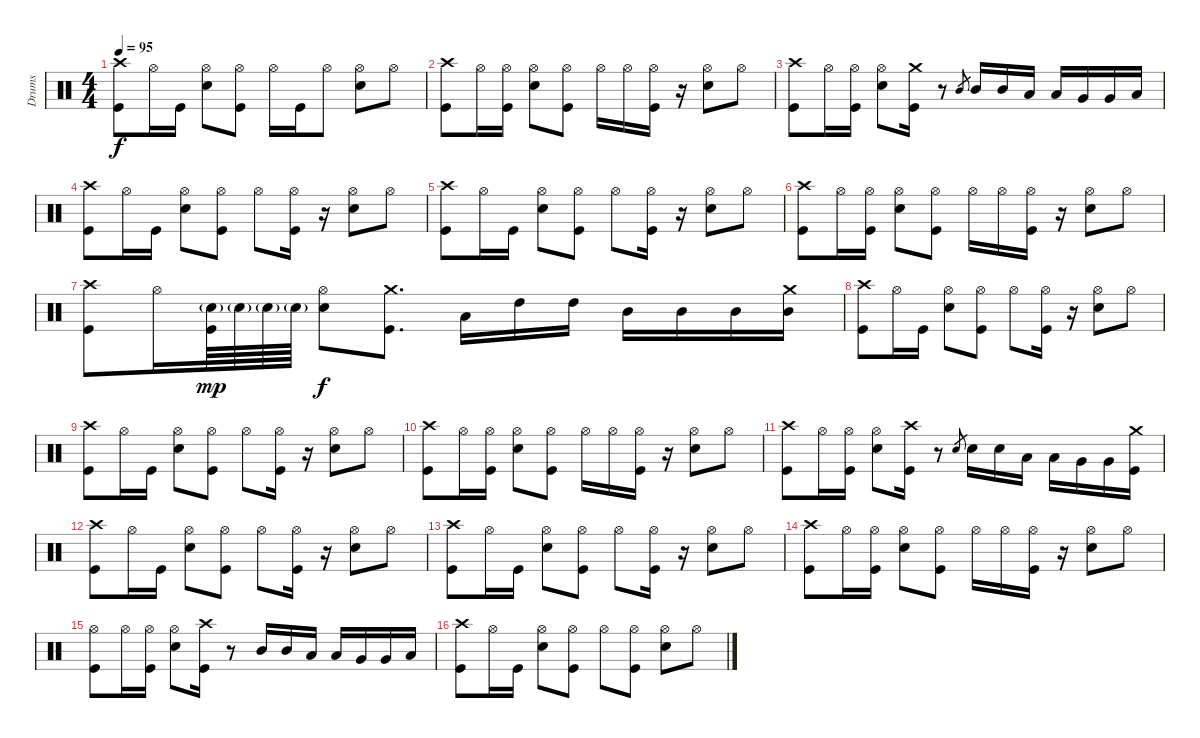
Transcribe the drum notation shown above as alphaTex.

\track ("Drums" "Drums") {instrument percussion}
\staff {score}
\articulation defaults
\ts (4 4)
\tempo 95
\clef neutral
\ks c
("Crash high (hit)" "Kick (hit)").8{dy f} "Hi-Hat (open)".16 "Kick (hit)".16 ("Hi-Hat (open)" "Electric Snare (hit)").8 ("Hi-Hat (open)" "Kick (hit)").8 "Hi-Hat (open)".16 "Kick (hit)".16 "Hi-Hat (open)".8 ("Hi-Hat (open)" "Electric Snare (hit)").8 "Hi-Hat (open)".8 |
("Crash high (hit)" "Kick (hit)").8 "Hi-Hat (open)".16 ("Hi-Hat (open)" "Kick (hit)").16 ("Hi-Hat (open)" "Electric Snare (hit)").8 ("Hi-Hat (open)" "Kick (hit)").8 "Hi-Hat (open)".16 "Hi-Hat (open)".16 ("Hi-Hat (open)" "Kick (hit)").16 r.16 ("Hi-Hat (open)" "Electric Snare (hit)").8 "Hi-Hat (open)".8 |
("Crash high (hit)" "Kick (hit)").8 "Hi-Hat (open)".16 ("Hi-Hat (open)" "Kick (hit)").16 ("Hi-Hat (open)" "Electric Snare (hit)").8 ("Crash medium (hit)" "Kick (hit)").16 r.8 "Mid Tom (hit)".8{gr} "Mid Tom (hit)".16 "Mid Tom (hit)".16 "Low Tom (hit)".16 "Low Tom (hit)".16 "Very Low Tom (hit)".16 "Very Low Tom (hit)".16 "Low Floor Tom (hit)".16 |
("Crash high (hit)" "Kick (hit)").8 "Hi-Hat (open)".16 "Kick (hit)".16 ("Hi-Hat (open)" "Electric Snare (hit)").8 ("Hi-Hat (open)" "Kick (hit)").8 "Hi-Hat (open)".8 ("Hi-Hat (open)" "Kick (hit)").16 r.16 ("Hi-Hat (open)" "Electric Snare (hit)").8 "Hi-Hat (open)".8 |
("Crash high (hit)" "Kick (hit)").8 "Hi-Hat (open)".16 "Kick (hit)".16 ("Hi-Hat (open)" "Electric Snare (hit)").8 ("Hi-Hat (open)" "Kick (hit)").8 "Hi-Hat (open)".8 ("Hi-Hat (open)" "Kick (hit)").16 r.16 ("Hi-Hat (open)" "Electric Snare (hit)").8 "Hi-Hat (open)".8 |
("Crash high (hit)" "Kick (hit)").8 "Hi-Hat (open)".16 ("Hi-Hat (open)" "Kick (hit)").16 ("Hi-Hat (open)" "Electric Snare (hit)").8 ("Hi-Hat (open)" "Kick (hit)").8 "Hi-Hat (open)".16 "Hi-Hat (open)".16 ("Hi-Hat (open)" "Kick (hit)").16 r.16 ("Hi-Hat (open)" "Electric Snare (hit)").8 "Hi-Hat (open)".8 |
("Crash high (hit)" "Kick (hit)").8 "Hi-Hat (open)".16 ("Electric Snare (hit)"{g} "Kick (hit)").64{dy mp} "Electric Snare (hit)"{g}.64 "Electric Snare (hit)"{g}.64 "Electric Snare (hit)"{g}.64 ("Hi-Hat (open)" "Electric Snare (hit)").8{dy f} ("Crash medium (hit)" "Kick (hit)").8{d} "Low Tom (hit)".16 "High Tom (hit)".16 "High Tom (hit)".16 "Mid Tom (hit)".16 "Mid Tom (hit)".16 "Mid Tom (hit)".16 ("Crash medium (hit)" "Mid Tom (hit)").16 |
("Crash high (hit)" "Kick (hit)").8 "Hi-Hat (open)".16 "Kick (hit)".16 ("Hi-Hat (open)" "Electric Snare (hit)").8 ("Hi-Hat (open)" "Kick (hit)").8 "Hi-Hat (open)".8 ("Hi-Hat (open)" "Kick (hit)").16 r.16 ("Hi-Hat (open)" "Electric Snare (hit)").8 "Hi-Hat (open)".8 |
("Crash high (hit)" "Kick (hit)").8 "Hi-Hat (open)".16 "Kick (hit)".16 ("Hi-Hat (open)" "Electric Snare (hit)").8 ("Hi-Hat (open)" "Kick (hit)").8 "Hi-Hat (open)".8 ("Hi-Hat (open)" "Kick (hit)").16 r.16 ("Hi-Hat (open)" "Electric Snare (hit)").8 "Hi-Hat (open)".8 |
("Crash high (hit)" "Kick (hit)").8 "Hi-Hat (open)".16 ("Hi-Hat (open)" "Kick (hit)").16 ("Hi-Hat (open)" "Electric Snare (hit)").8 ("Hi-Hat (open)" "Kick (hit)").8 "Hi-Hat (open)".16 "Hi-Hat (open)".16 ("Hi-Hat (open)" "Kick (hit)").16 r.16 ("Hi-Hat (open)" "Electric Snare (hit)").8 "Hi-Hat (open)".8 |
("Crash high (hit)" "Kick (hit)").8 "Hi-Hat (open)".16 ("Hi-Hat (open)" "Kick (hit)").16 ("Hi-Hat (open)" "Electric Snare (hit)").8 ("Crash high (hit)" "Kick (hit)").16 r.8 "Electric Snare (hit)".8{gr} "Electric Snare (hit)".16 "Electric Snare (hit)".16 "Low Tom (hit)".16 "Low Tom (hit)".16 "Very Low Tom (hit)".16 "Very Low Tom (hit)".16 ("Crash medium (hit)" "Kick (hit)").16 |
("Crash high (hit)" "Kick (hit)").8 "Hi-Hat (open)".16 "Kick (hit)".16 ("Hi-Hat (open)" "Electric Snare (hit)").8 ("Hi-Hat (open)" "Kick (hit)").8 "Hi-Hat (open)".8 ("Hi-Hat (open)" "Kick (hit)").16 r.16 ("Hi-Hat (open)" "Electric Snare (hit)").8 "Hi-Hat (open)".8 |
("Crash high (hit)" "Kick (hit)").8 "Hi-Hat (open)".16 "Kick (hit)".16 ("Hi-Hat (open)" "Electric Snare (hit)").8 ("Hi-Hat (open)" "Kick (hit)").8 "Hi-Hat (open)".8 ("Hi-Hat (open)" "Kick (hit)").16 r.16 ("Hi-Hat (open)" "Electric Snare (hit)").8 "Hi-Hat (open)".8 |
("Crash high (hit)" "Kick (hit)").8 "Hi-Hat (open)".16 ("Hi-Hat (open)" "Kick (hit)").16 ("Hi-Hat (open)" "Electric Snare (hit)").8 ("Hi-Hat (open)" "Kick (hit)").8 "Hi-Hat (open)".16 "Hi-Hat (open)".16 ("Hi-Hat (open)" "Kick (hit)").16 r.16 ("Hi-Hat (open)" "Electric Snare (hit)").8 "Hi-Hat (open)".8 |
("Hi-Hat (open)" "Kick (hit)").8 "Hi-Hat (open)".16 ("Hi-Hat (open)" "Kick (hit)").16 ("Hi-Hat (open)" "Electric Snare (hit)").8 ("Crash high (hit)" "Kick (hit)").16 r.8 "Mid Tom (hit)".16 "Mid Tom (hit)".16 "Low Tom (hit)".16 "Low Tom (hit)".16 "Very Low Tom (hit)".16 "Very Low Tom (hit)".16 "Low Floor Tom (hit)".16 |
("Crash high (hit)" "Kick (hit)").8 "Hi-Hat (open)".16 "Kick (hit)".16 ("Hi-Hat (open)" "Electric Snare (hit)").8 ("Hi-Hat (open)" "Kick (hit)").8 "Hi-Hat (open)".8 ("Hi-Hat (open)" "Kick (hit)").8 ("Hi-Hat (open)" "Electric Snare (hit)").8 "Hi-Hat (open)".8
